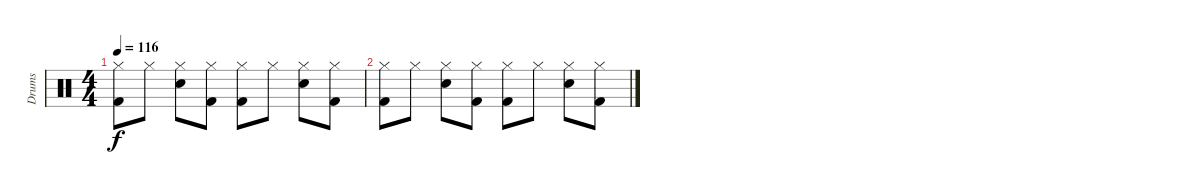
\track ("Drums" "Drums") {instrument percussion}
\staff {score}
\articulation defaults
\ts (4 4)
\tempo 116
\clef neutral
\ks c
("Hi-Hat (closed)" "Kick (hit) 2").8{dy f} "Hi-Hat (closed)".8 ("Hi-Hat (closed)" "Snare (hit) 2").8 ("Hi-Hat (closed)" "Kick (hit) 2").8 ("Hi-Hat (closed)" "Kick (hit) 2").8 "Hi-Hat (closed)".8 ("Hi-Hat (closed)" "Snare (hit) 2").8 ("Hi-Hat (closed)" "Kick (hit) 2").8 |
("Hi-Hat (closed)" "Kick (hit) 2").8 "Hi-Hat (closed)".8 ("Hi-Hat (closed)" "Snare (hit) 2").8 ("Hi-Hat (closed)" "Kick (hit) 2").8 ("Hi-Hat (closed)" "Kick (hit) 2").8 "Hi-Hat (closed)".8 ("Hi-Hat (closed)" "Snare (hit) 2").8 ("Hi-Hat (closed)" "Kick (hit) 2").8
